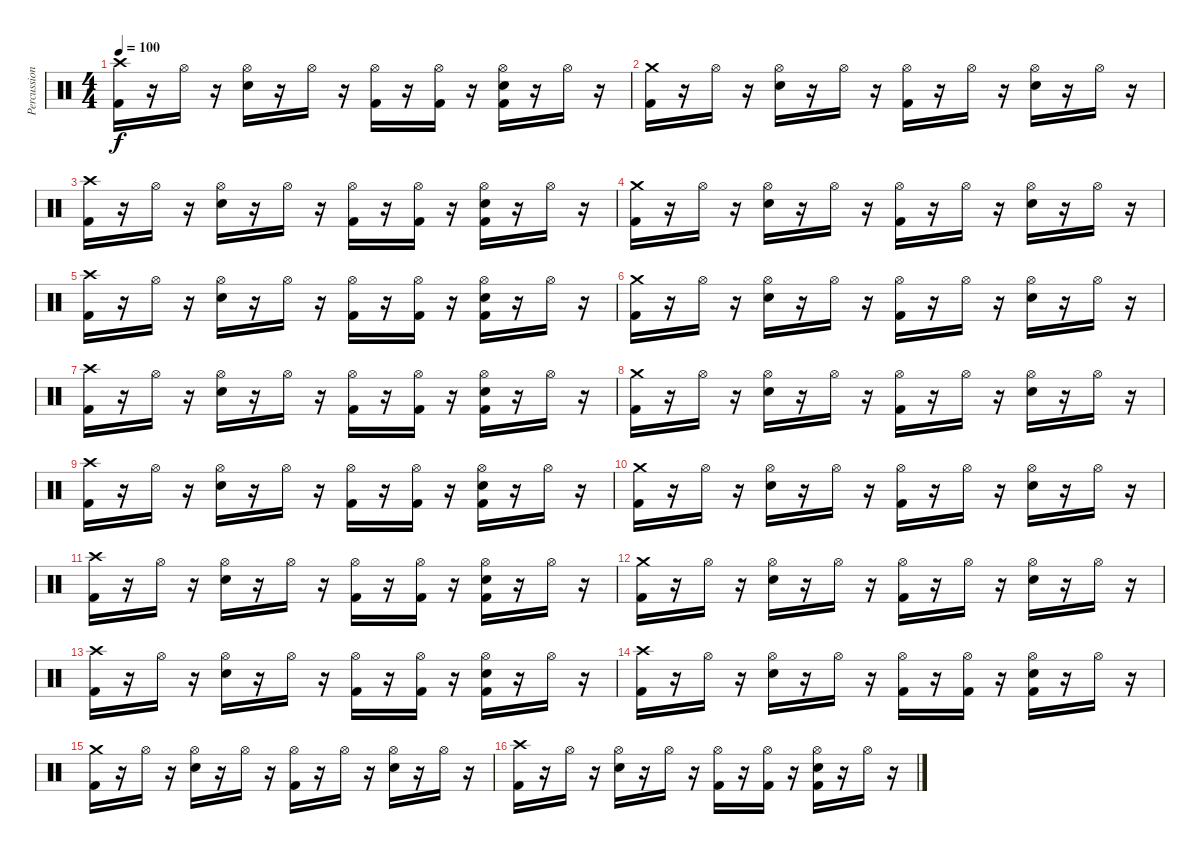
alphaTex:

\track ("Percussion" "Percussion") {instrument percussion}
\staff {score}
\articulation defaults
\ts (4 4)
\tempo 100
\clef neutral
\ks c
("Crash high (hit)" "Kick (hit) 2").16{dy f} r.16 "Hi-Hat (open)".16 r.16 ("Hi-Hat (open)" "Electric Snare (hit)").16 r.16 "Hi-Hat (open)".16 r.16 ("Hi-Hat (open)" "Kick (hit) 2").16 r.16 ("Hi-Hat (open)" "Kick (hit) 2").16 r.16 ("Hi-Hat (open)" "Electric Snare (hit)" "Kick (hit) 2").16 r.16 "Hi-Hat (open)".16 r.16 |
("Crash medium (hit)" "Kick (hit) 2").16 r.16 "Hi-Hat (open)".16 r.16 ("Hi-Hat (open)" "Electric Snare (hit)").16 r.16 "Hi-Hat (open)".16 r.16 ("Hi-Hat (open)" "Kick (hit) 2").16 r.16 "Hi-Hat (open)".16 r.16 ("Hi-Hat (open)" "Electric Snare (hit)").16 r.16 "Hi-Hat (open)".16 r.16 |
("Crash high (hit)" "Kick (hit) 2").16 r.16 "Hi-Hat (open)".16 r.16 ("Hi-Hat (open)" "Electric Snare (hit)").16 r.16 "Hi-Hat (open)".16 r.16 ("Hi-Hat (open)" "Kick (hit) 2").16 r.16 ("Hi-Hat (open)" "Kick (hit) 2").16 r.16 ("Hi-Hat (open)" "Electric Snare (hit)" "Kick (hit) 2").16 r.16 "Hi-Hat (open)".16 r.16 |
("Crash medium (hit)" "Kick (hit) 2").16 r.16 "Hi-Hat (open)".16 r.16 ("Hi-Hat (open)" "Electric Snare (hit)").16 r.16 "Hi-Hat (open)".16 r.16 ("Hi-Hat (open)" "Kick (hit) 2").16 r.16 "Hi-Hat (open)".16 r.16 ("Hi-Hat (open)" "Electric Snare (hit)").16 r.16 "Hi-Hat (open)".16 r.16 |
("Crash high (hit)" "Kick (hit) 2").16 r.16 "Hi-Hat (open)".16 r.16 ("Hi-Hat (open)" "Electric Snare (hit)").16 r.16 "Hi-Hat (open)".16 r.16 ("Hi-Hat (open)" "Kick (hit) 2").16 r.16 ("Hi-Hat (open)" "Kick (hit) 2").16 r.16 ("Hi-Hat (open)" "Electric Snare (hit)" "Kick (hit) 2").16 r.16 "Hi-Hat (open)".16 r.16 |
("Crash medium (hit)" "Kick (hit) 2").16 r.16 "Hi-Hat (open)".16 r.16 ("Hi-Hat (open)" "Electric Snare (hit)").16 r.16 "Hi-Hat (open)".16 r.16 ("Hi-Hat (open)" "Kick (hit) 2").16 r.16 "Hi-Hat (open)".16 r.16 ("Hi-Hat (open)" "Electric Snare (hit)").16 r.16 "Hi-Hat (open)".16 r.16 |
("Crash high (hit)" "Kick (hit) 2").16 r.16 "Hi-Hat (open)".16 r.16 ("Hi-Hat (open)" "Electric Snare (hit)").16 r.16 "Hi-Hat (open)".16 r.16 ("Hi-Hat (open)" "Kick (hit) 2").16 r.16 ("Hi-Hat (open)" "Kick (hit) 2").16 r.16 ("Hi-Hat (open)" "Electric Snare (hit)" "Kick (hit) 2").16 r.16 "Hi-Hat (open)".16 r.16 |
("Crash medium (hit)" "Kick (hit) 2").16 r.16 "Hi-Hat (open)".16 r.16 ("Hi-Hat (open)" "Electric Snare (hit)").16 r.16 "Hi-Hat (open)".16 r.16 ("Hi-Hat (open)" "Kick (hit) 2").16 r.16 "Hi-Hat (open)".16 r.16 ("Hi-Hat (open)" "Electric Snare (hit)").16 r.16 "Hi-Hat (open)".16 r.16 |
("Crash high (hit)" "Kick (hit) 2").16 r.16 "Hi-Hat (open)".16 r.16 ("Hi-Hat (open)" "Electric Snare (hit)").16 r.16 "Hi-Hat (open)".16 r.16 ("Hi-Hat (open)" "Kick (hit) 2").16 r.16 ("Hi-Hat (open)" "Kick (hit) 2").16 r.16 ("Hi-Hat (open)" "Electric Snare (hit)" "Kick (hit) 2").16 r.16 "Hi-Hat (open)".16 r.16 |
("Crash medium (hit)" "Kick (hit) 2").16 r.16 "Hi-Hat (open)".16 r.16 ("Hi-Hat (open)" "Electric Snare (hit)").16 r.16 "Hi-Hat (open)".16 r.16 ("Hi-Hat (open)" "Kick (hit) 2").16 r.16 "Hi-Hat (open)".16 r.16 ("Hi-Hat (open)" "Electric Snare (hit)").16 r.16 "Hi-Hat (open)".16 r.16 |
("Crash high (hit)" "Kick (hit) 2").16 r.16 "Hi-Hat (open)".16 r.16 ("Hi-Hat (open)" "Electric Snare (hit)").16 r.16 "Hi-Hat (open)".16 r.16 ("Hi-Hat (open)" "Kick (hit) 2").16 r.16 ("Hi-Hat (open)" "Kick (hit) 2").16 r.16 ("Hi-Hat (open)" "Electric Snare (hit)" "Kick (hit) 2").16 r.16 "Hi-Hat (open)".16 r.16 |
("Crash medium (hit)" "Kick (hit) 2").16 r.16 "Hi-Hat (open)".16 r.16 ("Hi-Hat (open)" "Electric Snare (hit)").16 r.16 "Hi-Hat (open)".16 r.16 ("Hi-Hat (open)" "Kick (hit) 2").16 r.16 "Hi-Hat (open)".16 r.16 ("Hi-Hat (open)" "Electric Snare (hit)").16 r.16 "Hi-Hat (open)".16 r.16 |
("Crash high (hit)" "Kick (hit) 2").16 r.16 "Hi-Hat (open)".16 r.16 ("Hi-Hat (open)" "Electric Snare (hit)").16 r.16 "Hi-Hat (open)".16 r.16 ("Hi-Hat (open)" "Kick (hit) 2").16 r.16 ("Hi-Hat (open)" "Kick (hit) 2").16 r.16 ("Hi-Hat (open)" "Electric Snare (hit)" "Kick (hit) 2").16 r.16 "Hi-Hat (open)".16 r.16 |
("Crash high (hit)" "Kick (hit) 2").16 r.16 "Hi-Hat (open)".16 r.16 ("Hi-Hat (open)" "Electric Snare (hit)").16 r.16 "Hi-Hat (open)".16 r.16 ("Hi-Hat (open)" "Kick (hit) 2").16 r.16 ("Hi-Hat (open)" "Kick (hit) 2").16 r.16 ("Hi-Hat (open)" "Electric Snare (hit)" "Kick (hit) 2").16 r.16 "Hi-Hat (open)".16 r.16 |
("Crash medium (hit)" "Kick (hit) 2").16 r.16 "Hi-Hat (open)".16 r.16 ("Hi-Hat (open)" "Electric Snare (hit)").16 r.16 "Hi-Hat (open)".16 r.16 ("Hi-Hat (open)" "Kick (hit) 2").16 r.16 "Hi-Hat (open)".16 r.16 ("Hi-Hat (open)" "Electric Snare (hit)").16 r.16 "Hi-Hat (open)".16 r.16 |
("Crash high (hit)" "Kick (hit) 2").16 r.16 "Hi-Hat (open)".16 r.16 ("Hi-Hat (open)" "Electric Snare (hit)").16 r.16 "Hi-Hat (open)".16 r.16 ("Hi-Hat (open)" "Kick (hit) 2").16 r.16 ("Hi-Hat (open)" "Kick (hit) 2").16 r.16 ("Hi-Hat (open)" "Electric Snare (hit)" "Kick (hit) 2").16 r.16 "Hi-Hat (open)".16 r.16
